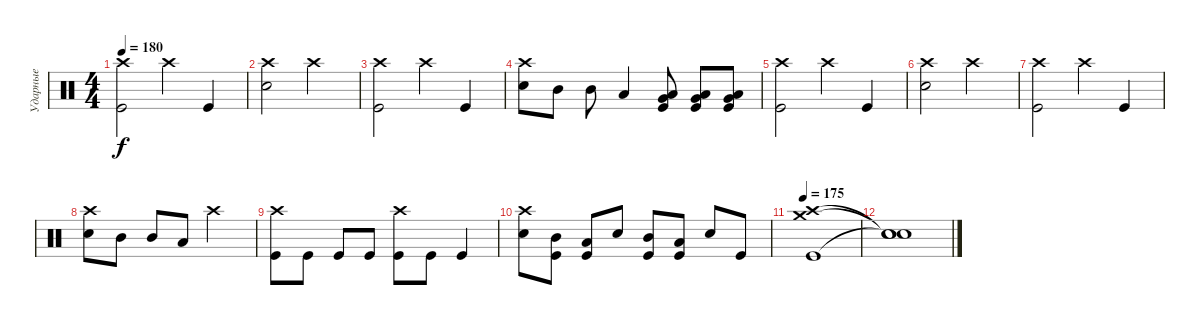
\track ("Ударные" "Ударные") {instrument percussion}
\staff {score}
\articulation defaults
\ts (4 4)
\tempo 180
\clef neutral
\ks c
("Crash high (hit)" "Kick (hit)").2{dy f} "Crash high (hit)".4 "Kick (hit)".4 |
("Crash high (hit)" "Snare (hit) 2").2 "Crash high (hit)".2 |
("Crash high (hit)" "Kick (hit)").2 "Crash high (hit)".4 "Kick (hit)".4 |
("Crash high (hit)" "Snare (hit) 2").8 "Mid Tom (hit)".8 "Mid Tom (hit)".8 "Low Tom (hit)".4 ("Very Low Tom (hit)" "Low Floor Tom (hit)" "Kick (hit)").8 ("Very Low Tom (hit)" "Low Floor Tom (hit)" "Kick (hit)").8 ("Very Low Tom (hit)" "Low Floor Tom (hit)" "Kick (hit)").8 |
("Crash high (hit)" "Kick (hit)").2 "Crash high (hit)".4 "Kick (hit)".4 |
("Crash high (hit)" "Snare (hit) 2").2 "Crash high (hit)".2 |
("Crash high (hit)" "Kick (hit)").2 "Crash high (hit)".4 "Kick (hit)".4 |
("Crash high (hit)" "Snare (hit) 2").8 "Mid Tom (hit)".8 "Mid Tom (hit)".8 "Low Tom (hit)".8 "Crash high (hit)".2 |
("Crash high (hit)" "Kick (hit)").8 "Kick (hit)".8 "Kick (hit)".8 "Kick (hit)".8 ("Crash high (hit)" "Kick (hit)").8 "Kick (hit)".8 "Kick (hit)".4 |
("Crash high (hit)" "Snare (hit) 2").8 ("Mid Tom (hit)" "Kick (hit)").8 ("Low Tom (hit)" "Kick (hit)").8 "Snare (hit) 2".8 ("Mid Tom (hit)" "Kick (hit)").8 ("Low Tom (hit)" "Kick (hit)").8 "Snare (hit) 2".8 "Kick (hit)".8 |
\tempo 175
("Crash high (hit)" "Crash medium (hit)" "Kick (hit)").1 |
("Snare (hit)"{t} "Snare (hit)"{t} "Snare (hit)"{t}).1
